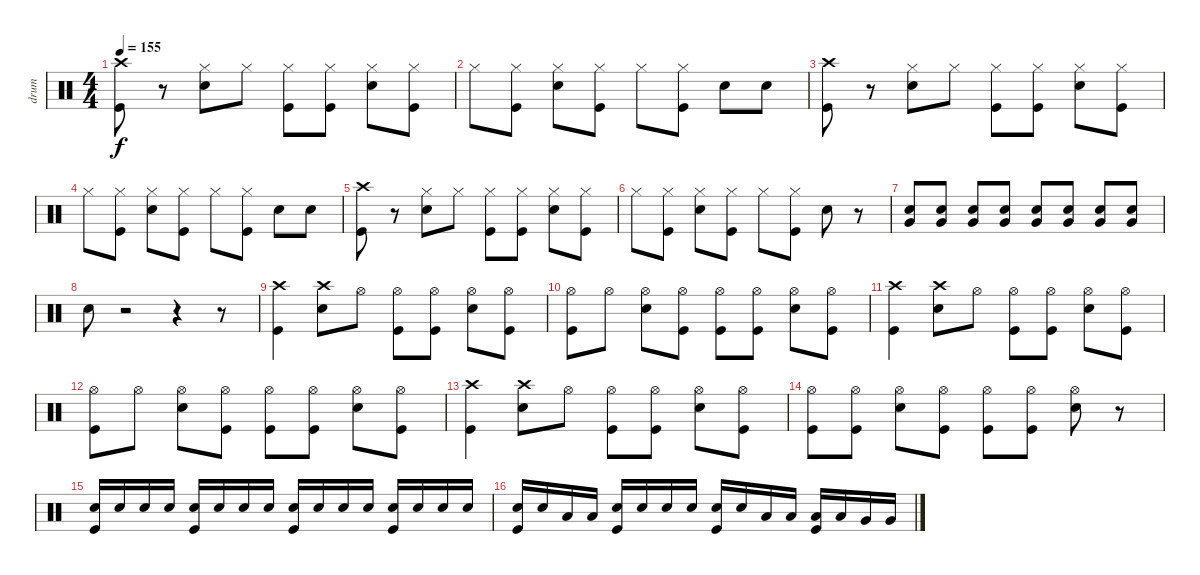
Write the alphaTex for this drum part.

\track ("drum" "drum") {instrument percussion}
\staff {score}
\articulation defaults
\ts (4 4)
\tempo 155
\clef neutral
\ks c
("Crash high (hit)" "Kick (hit)").8{dy f} r.8 ("Hi-Hat (closed)" "Snare (hit) 2").8 "Hi-Hat (closed)".8 ("Hi-Hat (closed)" "Kick (hit)").8 ("Hi-Hat (closed)" "Kick (hit)").8 ("Hi-Hat (closed)" "Snare (hit) 2").8 ("Hi-Hat (closed)" "Kick (hit)").8 |
"Hi-Hat (closed)".8 ("Hi-Hat (closed)" "Kick (hit)").8 ("Hi-Hat (closed)" "Snare (hit) 2").8 ("Hi-Hat (closed)" "Kick (hit)").8 "Hi-Hat (closed)".8 ("Hi-Hat (closed)" "Kick (hit)").8 "Snare (hit) 2".8 "Snare (hit) 2".8 |
("Crash high (hit)" "Kick (hit)").8 r.8 ("Hi-Hat (closed)" "Snare (hit) 2").8 "Hi-Hat (closed)".8 ("Hi-Hat (closed)" "Kick (hit)").8 ("Hi-Hat (closed)" "Kick (hit)").8 ("Hi-Hat (closed)" "Snare (hit) 2").8 ("Hi-Hat (closed)" "Kick (hit)").8 |
"Hi-Hat (closed)".8 ("Hi-Hat (closed)" "Kick (hit)").8 ("Hi-Hat (closed)" "Snare (hit) 2").8 ("Hi-Hat (closed)" "Kick (hit)").8 "Hi-Hat (closed)".8 ("Hi-Hat (closed)" "Kick (hit)").8 "Snare (hit) 2".8 "Snare (hit) 2".8 |
("Crash high (hit)" "Kick (hit)").8 r.8 ("Hi-Hat (closed)" "Snare (hit) 2").8 "Hi-Hat (closed)".8 ("Hi-Hat (closed)" "Kick (hit)").8 ("Hi-Hat (closed)" "Kick (hit)").8 ("Hi-Hat (closed)" "Snare (hit) 2").8 ("Hi-Hat (closed)" "Kick (hit)").8 |
"Hi-Hat (closed)".8 ("Hi-Hat (closed)" "Kick (hit)").8 ("Hi-Hat (closed)" "Snare (hit) 2").8 ("Hi-Hat (closed)" "Kick (hit)").8 "Hi-Hat (closed)".8 ("Hi-Hat (closed)" "Kick (hit)").8 "Snare (hit) 2".8 r.8 |
("Snare (hit) 2" "Very Low Tom (hit)").8 ("Snare (hit) 2" "Very Low Tom (hit)").8 ("Snare (hit) 2" "Very Low Tom (hit)").8 ("Snare (hit) 2" "Very Low Tom (hit)").8 ("Snare (hit) 2" "Very Low Tom (hit)").8 ("Snare (hit) 2" "Very Low Tom (hit)").8 ("Snare (hit) 2" "Very Low Tom (hit)").8 ("Snare (hit) 2" "Very Low Tom (hit)").8 |
"Snare (hit) 2".8 r.2 r.4 r.8 |
("Crash high (hit)" "Kick (hit)").4 ("Crash high (hit)" "Snare (hit) 2").8 "Hi-Hat (open)".8 ("Hi-Hat (open)" "Kick (hit)").8 ("Hi-Hat (open)" "Kick (hit)").8 ("Hi-Hat (open)" "Snare (hit) 2").8 ("Hi-Hat (open)" "Kick (hit)").8 |
("Hi-Hat (open)" "Kick (hit)").8 "Hi-Hat (open)".8 ("Hi-Hat (open)" "Snare (hit) 2").8 ("Hi-Hat (open)" "Kick (hit)").8 ("Hi-Hat (open)" "Kick (hit)").8 ("Hi-Hat (open)" "Kick (hit)").8 ("Hi-Hat (open)" "Snare (hit) 2").8 ("Hi-Hat (open)" "Kick (hit)").8 |
("Crash high (hit)" "Kick (hit)").4 ("Crash high (hit)" "Snare (hit) 2").8 "Hi-Hat (open)".8 ("Hi-Hat (open)" "Kick (hit)").8 ("Hi-Hat (open)" "Kick (hit)").8 ("Hi-Hat (open)" "Snare (hit) 2").8 ("Hi-Hat (open)" "Kick (hit)").8 |
("Hi-Hat (open)" "Kick (hit)").8 "Hi-Hat (open)".8 ("Hi-Hat (open)" "Snare (hit) 2").8 ("Hi-Hat (open)" "Kick (hit)").8 ("Hi-Hat (open)" "Kick (hit)").8 ("Hi-Hat (open)" "Kick (hit)").8 ("Hi-Hat (open)" "Snare (hit) 2").8 ("Hi-Hat (open)" "Kick (hit)").8 |
("Crash high (hit)" "Kick (hit)").4 ("Crash high (hit)" "Snare (hit) 2").8 "Hi-Hat (open)".8 ("Hi-Hat (open)" "Kick (hit)").8 ("Hi-Hat (open)" "Kick (hit)").8 ("Hi-Hat (open)" "Snare (hit) 2").8 ("Hi-Hat (open)" "Kick (hit)").8 |
("Hi-Hat (open)" "Kick (hit)").8 ("Hi-Hat (open)" "Kick (hit)").8 ("Hi-Hat (open)" "Snare (hit) 2").8 ("Hi-Hat (open)" "Kick (hit)").8 ("Hi-Hat (open)" "Kick (hit)").8 ("Hi-Hat (open)" "Kick (hit)").8 ("Hi-Hat (open)" "Snare (hit) 2").8 r.8 |
("Snare (hit) 2" "Kick (hit)").16 "Snare (hit) 2".16 "Snare (hit) 2".16 "Snare (hit) 2".16 ("Snare (hit) 2" "Kick (hit)").16 "Snare (hit) 2".16 "Snare (hit) 2".16 "Snare (hit) 2".16 ("Snare (hit) 2" "Kick (hit)").16 "Snare (hit) 2".16 "Snare (hit) 2".16 "Snare (hit) 2".16 ("Snare (hit) 2" "Kick (hit)").16 "Snare (hit) 2".16 "Snare (hit) 2".16 "Snare (hit) 2".16 |
("Snare (hit) 2" "Kick (hit)").16 "Snare (hit) 2".16 "Low Tom (hit)".16 "Low Tom (hit)".16 ("Snare (hit) 2" "Kick (hit)").16 "Snare (hit) 2".16 "Snare (hit) 2".16 "Snare (hit) 2".16 ("Snare (hit) 2" "Kick (hit)").16 "Snare (hit) 2".16 "Low Tom (hit)".16 "Low Tom (hit)".16 ("Low Tom (hit)" "Kick (hit)").16 "Low Tom (hit)".16 "Very Low Tom (hit)".16 "Very Low Tom (hit)".16
